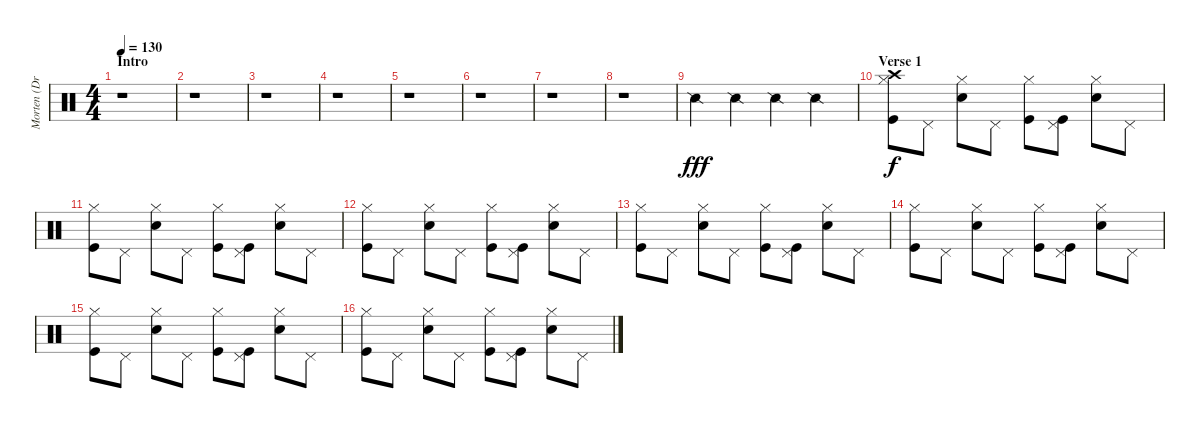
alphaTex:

\track ("Morten (Drums)" "Morten (Dr") {instrument percussion}
\staff {score}
\articulation defaults
\ts (4 4)
\section ("" "Intro")
\tempo 130
\clef neutral
\ks c
r.1{dy fff} |
r.1 |
r.1 |
r.1 |
r.1 |
r.1 |
r.1 |
r.1 |
"Snare (side stick) 2".4 "Snare (side stick) 2".4 "Snare (side stick) 2".4 "Snare (side stick) 2".4 |
\section ("" "Verse 1")
("Hi-Hat (closed)" "Kick (hit)" "Crash high (hit)").8{dy f} "Pedal Hi-Hat (hit)".8 ("Hi-Hat (closed)" "Snare (hit) 2").8 "Pedal Hi-Hat (hit)".8 ("Hi-Hat (closed)" "Kick (hit)").8 ("Pedal Hi-Hat (hit)" "Kick (hit)").8 ("Hi-Hat (closed)" "Snare (hit) 2").8 "Pedal Hi-Hat (hit)".8 |
("Hi-Hat (closed)" "Kick (hit)").8 "Pedal Hi-Hat (hit)".8 ("Hi-Hat (closed)" "Snare (hit) 2").8 "Pedal Hi-Hat (hit)".8 ("Hi-Hat (closed)" "Kick (hit)").8 ("Pedal Hi-Hat (hit)" "Kick (hit)").8 ("Hi-Hat (closed)" "Snare (hit) 2").8 "Pedal Hi-Hat (hit)".8 |
("Hi-Hat (closed)" "Kick (hit)").8 "Pedal Hi-Hat (hit)".8 ("Hi-Hat (closed)" "Snare (hit) 2").8 "Pedal Hi-Hat (hit)".8 ("Hi-Hat (closed)" "Kick (hit)").8 ("Pedal Hi-Hat (hit)" "Kick (hit)").8 ("Hi-Hat (closed)" "Snare (hit) 2").8 "Pedal Hi-Hat (hit)".8 |
("Hi-Hat (closed)" "Kick (hit)").8 "Pedal Hi-Hat (hit)".8 ("Hi-Hat (closed)" "Snare (hit) 2").8 "Pedal Hi-Hat (hit)".8 ("Hi-Hat (closed)" "Kick (hit)").8 ("Pedal Hi-Hat (hit)" "Kick (hit)").8 ("Hi-Hat (closed)" "Snare (hit) 2").8 "Pedal Hi-Hat (hit)".8 |
("Hi-Hat (closed)" "Kick (hit)").8 "Pedal Hi-Hat (hit)".8 ("Hi-Hat (closed)" "Snare (hit) 2").8 "Pedal Hi-Hat (hit)".8 ("Hi-Hat (closed)" "Kick (hit)").8 ("Pedal Hi-Hat (hit)" "Kick (hit)").8 ("Hi-Hat (closed)" "Snare (hit) 2").8 "Pedal Hi-Hat (hit)".8 |
("Hi-Hat (closed)" "Kick (hit)").8 "Pedal Hi-Hat (hit)".8 ("Hi-Hat (closed)" "Snare (hit) 2").8 "Pedal Hi-Hat (hit)".8 ("Hi-Hat (closed)" "Kick (hit)").8 ("Pedal Hi-Hat (hit)" "Kick (hit)").8 ("Hi-Hat (closed)" "Snare (hit) 2").8 "Pedal Hi-Hat (hit)".8 |
("Hi-Hat (closed)" "Kick (hit)").8 "Pedal Hi-Hat (hit)".8 ("Hi-Hat (closed)" "Snare (hit) 2").8 "Pedal Hi-Hat (hit)".8 ("Hi-Hat (closed)" "Kick (hit)").8 ("Pedal Hi-Hat (hit)" "Kick (hit)").8 ("Hi-Hat (closed)" "Snare (hit) 2").8 "Pedal Hi-Hat (hit)".8
